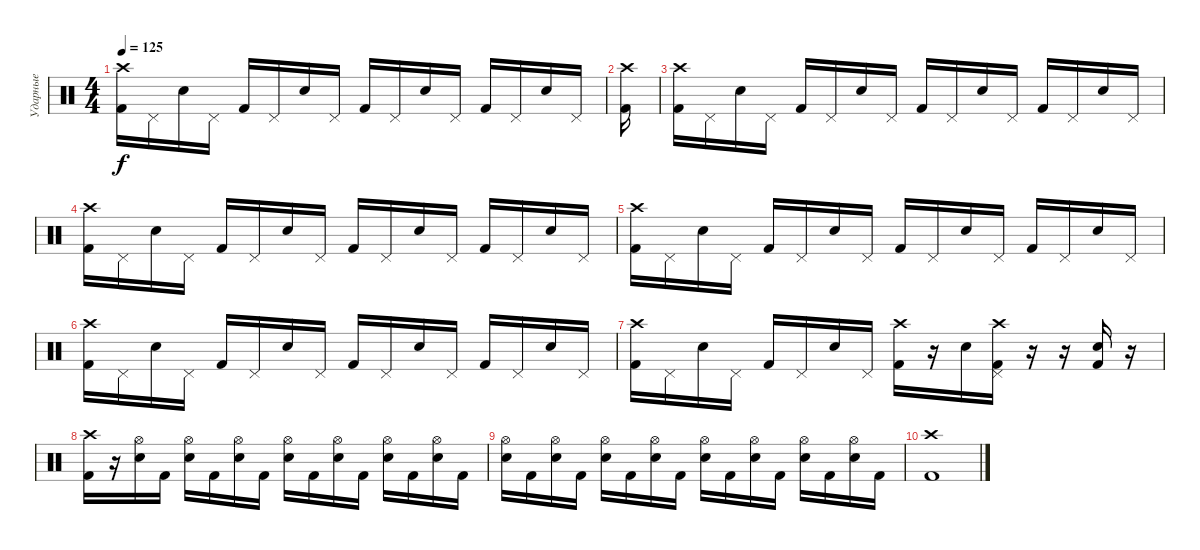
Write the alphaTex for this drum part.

\track ("Ударные" "Ударные") {instrument percussion}
\staff {score}
\articulation defaults
\ts (4 4)
\tempo 125
\clef neutral
\ks c
("Crash high (hit)" "Kick (hit) 2").16{dy f} "Pedal Hi-Hat (hit)".16 "Electric Snare (hit)".16 "Pedal Hi-Hat (hit)".16 "Kick (hit) 2".16 "Pedal Hi-Hat (hit)".16 "Electric Snare (hit)".16 "Pedal Hi-Hat (hit)".16 "Kick (hit) 2".16 "Pedal Hi-Hat (hit)".16 "Electric Snare (hit)".16 "Pedal Hi-Hat (hit)".16 "Kick (hit) 2".16 "Pedal Hi-Hat (hit)".16 "Electric Snare (hit)".16 "Pedal Hi-Hat (hit)".16 |
("Crash high (hit)" "Kick (hit) 2").16 |
("Crash high (hit)" "Kick (hit) 2").16 "Pedal Hi-Hat (hit)".16 "Electric Snare (hit)".16 "Pedal Hi-Hat (hit)".16 "Kick (hit) 2".16 "Pedal Hi-Hat (hit)".16 "Electric Snare (hit)".16 "Pedal Hi-Hat (hit)".16 "Kick (hit) 2".16 "Pedal Hi-Hat (hit)".16 "Electric Snare (hit)".16 "Pedal Hi-Hat (hit)".16 "Kick (hit) 2".16 "Pedal Hi-Hat (hit)".16 "Electric Snare (hit)".16 "Pedal Hi-Hat (hit)".16 |
("Crash high (hit)" "Kick (hit) 2").16 "Pedal Hi-Hat (hit)".16 "Electric Snare (hit)".16 "Pedal Hi-Hat (hit)".16 "Kick (hit) 2".16 "Pedal Hi-Hat (hit)".16 "Electric Snare (hit)".16 "Pedal Hi-Hat (hit)".16 "Kick (hit) 2".16 "Pedal Hi-Hat (hit)".16 "Electric Snare (hit)".16 "Pedal Hi-Hat (hit)".16 "Kick (hit) 2".16 "Pedal Hi-Hat (hit)".16 "Electric Snare (hit)".16 "Pedal Hi-Hat (hit)".16 |
("Crash high (hit)" "Kick (hit) 2").16 "Pedal Hi-Hat (hit)".16 "Electric Snare (hit)".16 "Pedal Hi-Hat (hit)".16 "Kick (hit) 2".16 "Pedal Hi-Hat (hit)".16 "Electric Snare (hit)".16 "Pedal Hi-Hat (hit)".16 "Kick (hit) 2".16 "Pedal Hi-Hat (hit)".16 "Electric Snare (hit)".16 "Pedal Hi-Hat (hit)".16 "Kick (hit) 2".16 "Pedal Hi-Hat (hit)".16 "Electric Snare (hit)".16 "Pedal Hi-Hat (hit)".16 |
("Crash high (hit)" "Kick (hit) 2").16 "Pedal Hi-Hat (hit)".16 "Electric Snare (hit)".16 "Pedal Hi-Hat (hit)".16 "Kick (hit) 2".16 "Pedal Hi-Hat (hit)".16 "Electric Snare (hit)".16 "Pedal Hi-Hat (hit)".16 "Kick (hit) 2".16 "Pedal Hi-Hat (hit)".16 "Electric Snare (hit)".16 "Pedal Hi-Hat (hit)".16 "Kick (hit) 2".16 "Pedal Hi-Hat (hit)".16 "Electric Snare (hit)".16 "Pedal Hi-Hat (hit)".16 |
("Crash high (hit)" "Kick (hit) 2").16 "Pedal Hi-Hat (hit)".16 "Electric Snare (hit)".16 "Pedal Hi-Hat (hit)".16 "Kick (hit) 2".16 "Pedal Hi-Hat (hit)".16 "Electric Snare (hit)".16 "Pedal Hi-Hat (hit)".16 ("Crash high (hit)" "Kick (hit) 2").16 r.16 "Electric Snare (hit)".16 ("Crash high (hit)" "Pedal Hi-Hat (hit)" "Kick (hit) 2").16 r.16 r.16 ("Electric Snare (hit)" "Kick (hit) 2").16 r.16 |
("Crash high (hit)" "Kick (hit) 2").16 r.16 ("Hi-Hat (open)" "Electric Snare (hit)").16 "Kick (hit) 2".16 ("Hi-Hat (open)" "Electric Snare (hit)").16 "Kick (hit) 2".16 ("Hi-Hat (open)" "Electric Snare (hit)").16 "Kick (hit) 2".16 ("Hi-Hat (open)" "Electric Snare (hit)").16 "Kick (hit) 2".16 ("Hi-Hat (open)" "Electric Snare (hit)").16 "Kick (hit) 2".16 ("Hi-Hat (open)" "Electric Snare (hit)").16 "Kick (hit) 2".16 ("Hi-Hat (open)" "Electric Snare (hit)").16 "Kick (hit) 2".16 |
("Hi-Hat (open)" "Electric Snare (hit)").16 "Kick (hit) 2".16 ("Hi-Hat (open)" "Electric Snare (hit)").16 "Kick (hit) 2".16 ("Hi-Hat (open)" "Electric Snare (hit)").16 "Kick (hit) 2".16 ("Hi-Hat (open)" "Electric Snare (hit)").16 "Kick (hit) 2".16 ("Hi-Hat (open)" "Electric Snare (hit)").16 "Kick (hit) 2".16 ("Hi-Hat (open)" "Electric Snare (hit)").16 "Kick (hit) 2".16 ("Hi-Hat (open)" "Electric Snare (hit)").16 "Kick (hit) 2".16 ("Hi-Hat (open)" "Electric Snare (hit)").16 "Kick (hit) 2".16 |
("Crash high (hit)" "Kick (hit) 2").1
